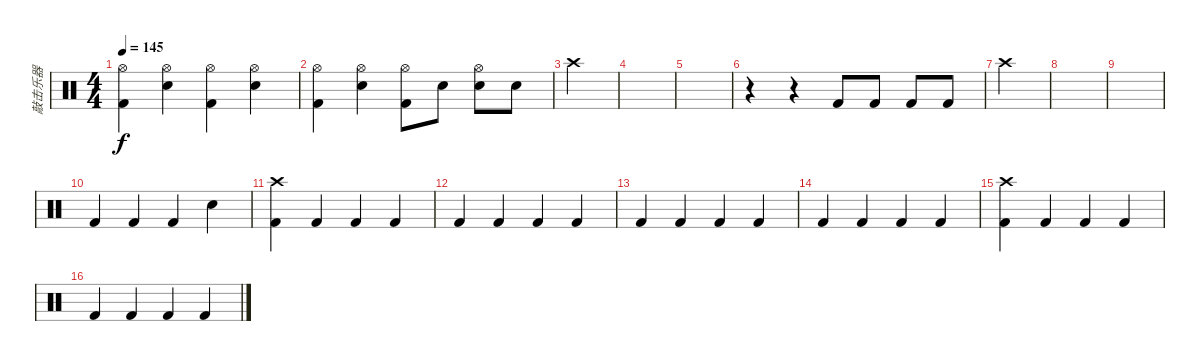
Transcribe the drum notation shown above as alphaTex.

\track ("敲击乐器" "敲击乐器") {instrument percussion}
\staff {score}
\articulation defaults
\ts (4 4)
\tempo 145
\clef neutral
\ks c
("Hi-Hat (open)" "Kick (hit) 2").4{dy f} ("Hi-Hat (open)" "Snare (hit) 2").4 ("Hi-Hat (open)" "Kick (hit) 2").4 ("Hi-Hat (open)" "Snare (hit) 2").4 |
("Hi-Hat (open)" "Kick (hit) 2").4 ("Hi-Hat (open)" "Snare (hit) 2").4 ("Hi-Hat (open)" "Kick (hit) 2").8 "Snare (hit) 2".8 ("Hi-Hat (open)" "Snare (hit) 2").8 "Snare (hit) 2".8 |
"Crash high (hit)".4 |
|
|
r.4 r.4 "Kick (hit) 2".8 "Kick (hit) 2".8 "Kick (hit) 2".8 "Kick (hit) 2".8 |
"Crash high (hit)".4 |
|
|
"Kick (hit) 2".4 "Kick (hit) 2".4 "Kick (hit) 2".4 "Snare (hit) 2".4 |
("Crash high (hit)" "Kick (hit) 2").4 "Kick (hit) 2".4 "Kick (hit) 2".4 "Kick (hit) 2".4 |
"Kick (hit) 2".4 "Kick (hit) 2".4 "Kick (hit) 2".4 "Kick (hit) 2".4 |
"Kick (hit) 2".4 "Kick (hit) 2".4 "Kick (hit) 2".4 "Kick (hit) 2".4 |
"Kick (hit) 2".4 "Kick (hit) 2".4 "Kick (hit) 2".4 "Kick (hit) 2".4 |
("Crash high (hit)" "Kick (hit) 2").4 "Kick (hit) 2".4 "Kick (hit) 2".4 "Kick (hit) 2".4 |
"Kick (hit) 2".4 "Kick (hit) 2".4 "Kick (hit) 2".4 "Kick (hit) 2".4
